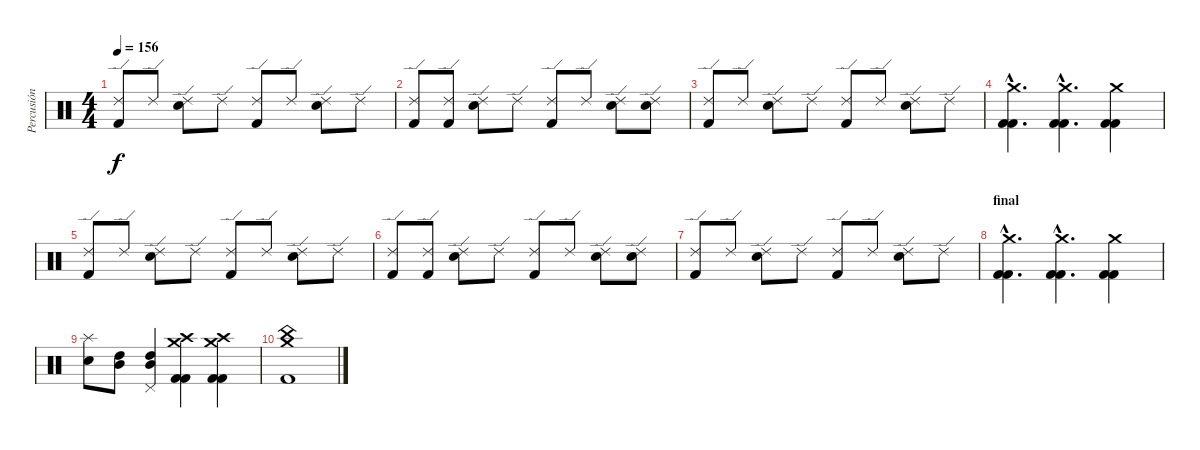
\track ("Percusión" "Percusión") {instrument percussion}
\staff {score}
\articulation defaults
\ts (4 4)
\tempo 156
\clef neutral
\ks c
("Ride (edge) 2" "Kick (hit) 2").8{dy f} "Ride (edge) 2".8 ("Ride (edge) 2" "Electric Snare (hit)").8 "Ride (edge) 2".8 ("Ride (edge) 2" "Kick (hit) 2").8 "Ride (edge) 2".8 ("Ride (edge) 2" "Electric Snare (hit)").8 "Ride (edge) 2".8 |
("Ride (edge) 2" "Kick (hit) 2").8 ("Ride (edge) 2" "Kick (hit) 2").8 ("Ride (edge) 2" "Electric Snare (hit)").8 "Ride (edge) 2".8 ("Ride (edge) 2" "Kick (hit) 2").8 "Ride (edge) 2".8 ("Ride (edge) 2" "Electric Snare (hit)").8 ("Ride (edge) 2" "Electric Snare (hit)").8 |
("Ride (edge) 2" "Kick (hit) 2").8 "Ride (edge) 2".8 ("Ride (edge) 2" "Electric Snare (hit)").8 "Ride (edge) 2".8 ("Ride (edge) 2" "Kick (hit) 2").8 "Ride (edge) 2".8 ("Ride (edge) 2" "Electric Snare (hit)").8 "Ride (edge) 2".8 |
("Crash medium (hit)"{hac} "Kick (hit) 2"{hac} "Kick (hit) 2"{hac}).4{d} ("Crash medium (hit)"{hac} "Kick (hit) 2"{hac} "Kick (hit) 2"{hac}).4{d} ("Crash medium (hit)" "Kick (hit) 2" "Kick (hit) 2").4 |
("Ride (edge) 2" "Kick (hit) 2").8 "Ride (edge) 2".8 ("Ride (edge) 2" "Electric Snare (hit)").8 "Ride (edge) 2".8 ("Ride (edge) 2" "Kick (hit) 2").8 "Ride (edge) 2".8 ("Ride (edge) 2" "Electric Snare (hit)").8 "Ride (edge) 2".8 |
("Ride (edge) 2" "Kick (hit) 2").8 ("Ride (edge) 2" "Kick (hit) 2").8 ("Ride (edge) 2" "Electric Snare (hit)").8 "Ride (edge) 2".8 ("Ride (edge) 2" "Kick (hit) 2").8 "Ride (edge) 2".8 ("Ride (edge) 2" "Electric Snare (hit)").8 ("Ride (edge) 2" "Electric Snare (hit)").8 |
("Ride (edge) 2" "Kick (hit) 2").8 "Ride (edge) 2".8 ("Ride (edge) 2" "Electric Snare (hit)").8 "Ride (edge) 2".8 ("Ride (edge) 2" "Kick (hit) 2").8 "Ride (edge) 2".8 ("Ride (edge) 2" "Electric Snare (hit)").8 "Ride (edge) 2".8 |
\section ("" "final")
("Crash medium (hit)"{hac} "Kick (hit) 2"{hac} "Kick (hit) 2"{hac}).4{d} ("Crash medium (hit)"{hac} "Kick (hit) 2"{hac} "Kick (hit) 2"{hac}).4{d} ("Crash medium (hit)" "Kick (hit) 2" "Kick (hit) 2").4 |
("Splash (hit)" "Electric Snare (hit)").8 ("Mid Tom (hit)" "High Tom (hit)").8 ("Pedal Hi-Hat (hit)" "Mid Tom (hit)" "High Tom (hit)").4 ("Crash medium (hit)" "Crash high (hit)" "Kick (hit) 2" "Kick (hit) 2").4 ("Crash medium (hit)" "Crash high (hit)" "Kick (hit) 2" "Kick (hit) 2").4 |
("Crash medium (hit)" "China (hit)" "Kick (hit) 2").1
